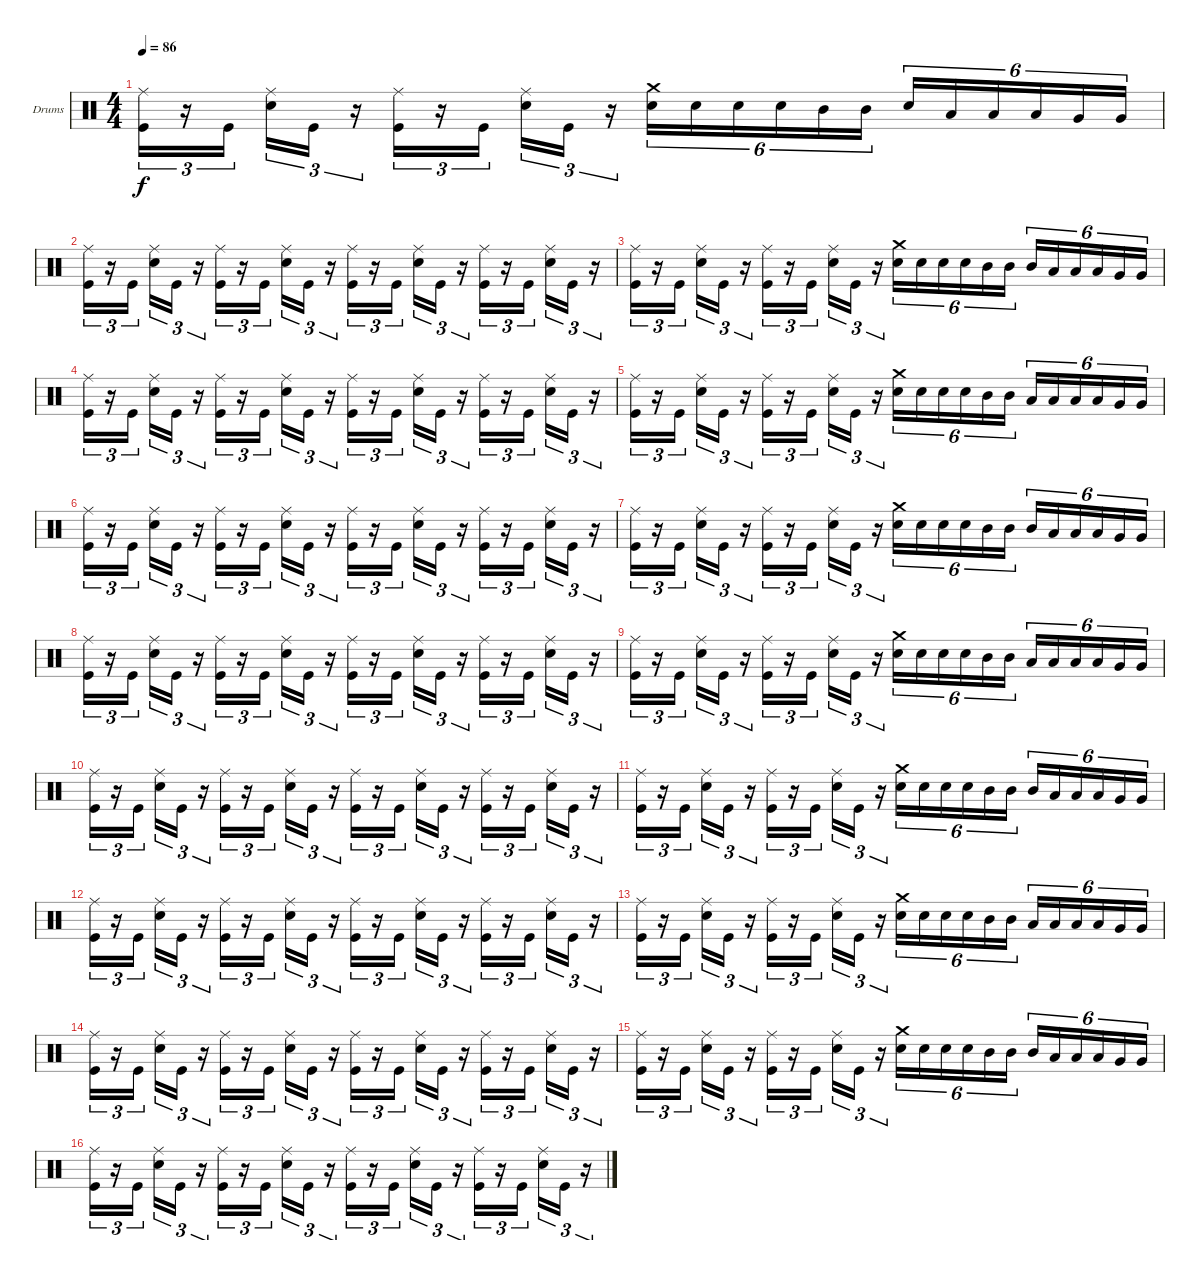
\bracketExtendMode groupsimilarinstruments
\firstSystemTrackNameOrientation horizontal
\otherSystemsTrackNameOrientation horizontal
\track ("Drumkit" "Drums") {instrument percussion}
\staff {score}
\articulation defaults
\ts (4 4)
\tempo 86
\clef neutral
\ks c
("Kick (hit)" "Ride (middle)").16{tu (3 2) dy f} r.16{tu (3 2)} "Kick (hit)".16{tu (3 2)} ("Snare (hit) 2" "Ride (middle)").16{tu (3 2)} "Kick (hit)".16{tu (3 2)} r.16{tu (3 2)} ("Kick (hit)" "Ride (middle)").16{tu (3 2)} r.16{tu (3 2)} "Kick (hit)".16{tu (3 2)} ("Snare (hit) 2" "Ride (middle)").16{tu (3 2)} "Kick (hit)".16{tu (3 2)} r.16{tu (3 2)} ("Snare (hit) 2" "Crash medium (hit)").16{tu (6 4)} "Snare (hit) 2".16{tu (6 4)} "Snare (hit) 2".16{tu (6 4)} "Snare (hit) 2".16{tu (6 4)} "Mid Tom (hit)".16{tu (6 4)} "Mid Tom (hit)".16{tu (6 4)} "Snare (hit) 2".16{tu (6 4)} "Low Tom (hit)".16{tu (6 4)} "Low Tom (hit)".16{tu (6 4)} "Low Tom (hit)".16{tu (6 4)} "Very Low Tom (hit)".16{tu (6 4)} "Very Low Tom (hit)".16{tu (6 4)} |
("Kick (hit)" "Ride (middle)").16{tu (3 2)} r.16{tu (3 2)} "Kick (hit)".16{tu (3 2)} ("Snare (hit) 2" "Ride (middle)").16{tu (3 2)} "Kick (hit)".16{tu (3 2)} r.16{tu (3 2)} ("Kick (hit)" "Ride (middle)").16{tu (3 2)} r.16{tu (3 2)} "Kick (hit)".16{tu (3 2)} ("Snare (hit) 2" "Ride (middle)").16{tu (3 2)} "Kick (hit)".16{tu (3 2)} r.16{tu (3 2)} ("Kick (hit)" "Ride (middle)").16{tu (3 2)} r.16{tu (3 2)} "Kick (hit)".16{tu (3 2)} ("Snare (hit) 2" "Ride (middle)").16{tu (3 2)} "Kick (hit)".16{tu (3 2)} r.16{tu (3 2)} ("Kick (hit)" "Ride (middle)").16{tu (3 2)} r.16{tu (3 2)} "Kick (hit)".16{tu (3 2)} ("Snare (hit) 2" "Ride (middle)").16{tu (3 2)} "Kick (hit)".16{tu (3 2)} r.16{tu (3 2)} |
("Kick (hit)" "Ride (middle)").16{tu (3 2)} r.16{tu (3 2)} "Kick (hit)".16{tu (3 2)} ("Snare (hit) 2" "Ride (middle)").16{tu (3 2)} "Kick (hit)".16{tu (3 2)} r.16{tu (3 2)} ("Kick (hit)" "Ride (middle)").16{tu (3 2)} r.16{tu (3 2)} "Kick (hit)".16{tu (3 2)} ("Snare (hit) 2" "Ride (middle)").16{tu (3 2)} "Kick (hit)".16{tu (3 2)} r.16{tu (3 2)} ("Snare (hit) 2" "Crash medium (hit)").16{tu (6 4)} "Snare (hit) 2".16{tu (6 4)} "Snare (hit) 2".16{tu (6 4)} "Snare (hit) 2".16{tu (6 4)} "Mid Tom (hit)".16{tu (6 4)} "Mid Tom (hit)".16{tu (6 4)} "Mid Tom (hit)".16{tu (6 4)} "Low Tom (hit)".16{tu (6 4)} "Low Tom (hit)".16{tu (6 4)} "Low Tom (hit)".16{tu (6 4)} "Very Low Tom (hit)".16{tu (6 4)} "Very Low Tom (hit)".16{tu (6 4)} |
("Kick (hit)" "Ride (middle)").16{tu (3 2)} r.16{tu (3 2)} "Kick (hit)".16{tu (3 2)} ("Snare (hit) 2" "Ride (middle)").16{tu (3 2)} "Kick (hit)".16{tu (3 2)} r.16{tu (3 2)} ("Kick (hit)" "Ride (middle)").16{tu (3 2)} r.16{tu (3 2)} "Kick (hit)".16{tu (3 2)} ("Snare (hit) 2" "Ride (middle)").16{tu (3 2)} "Kick (hit)".16{tu (3 2)} r.16{tu (3 2)} ("Kick (hit)" "Ride (middle)").16{tu (3 2)} r.16{tu (3 2)} "Kick (hit)".16{tu (3 2)} ("Snare (hit) 2" "Ride (middle)").16{tu (3 2)} "Kick (hit)".16{tu (3 2)} r.16{tu (3 2)} ("Kick (hit)" "Ride (middle)").16{tu (3 2)} r.16{tu (3 2)} "Kick (hit)".16{tu (3 2)} ("Snare (hit) 2" "Ride (middle)").16{tu (3 2)} "Kick (hit)".16{tu (3 2)} r.16{tu (3 2)} |
("Kick (hit)" "Ride (middle)").16{tu (3 2)} r.16{tu (3 2)} "Kick (hit)".16{tu (3 2)} ("Snare (hit) 2" "Ride (middle)").16{tu (3 2)} "Kick (hit)".16{tu (3 2)} r.16{tu (3 2)} ("Kick (hit)" "Ride (middle)").16{tu (3 2)} r.16{tu (3 2)} "Kick (hit)".16{tu (3 2)} ("Snare (hit) 2" "Ride (middle)").16{tu (3 2)} "Kick (hit)".16{tu (3 2)} r.16{tu (3 2)} ("Snare (hit) 2" "Crash medium (hit)").16{tu (6 4)} "Snare (hit) 2".16{tu (6 4)} "Snare (hit) 2".16{tu (6 4)} "Snare (hit) 2".16{tu (6 4)} "Mid Tom (hit)".16{tu (6 4)} "Mid Tom (hit)".16{tu (6 4)} "Low Tom (hit)".16{tu (6 4)} "Low Tom (hit)".16{tu (6 4)} "Low Tom (hit)".16{tu (6 4)} "Low Tom (hit)".16{tu (6 4)} "Very Low Tom (hit)".16{tu (6 4)} "Very Low Tom (hit)".16{tu (6 4)} |
("Kick (hit)" "Ride (middle)").16{tu (3 2)} r.16{tu (3 2)} "Kick (hit)".16{tu (3 2)} ("Snare (hit) 2" "Ride (middle)").16{tu (3 2)} "Kick (hit)".16{tu (3 2)} r.16{tu (3 2)} ("Kick (hit)" "Ride (middle)").16{tu (3 2)} r.16{tu (3 2)} "Kick (hit)".16{tu (3 2)} ("Snare (hit) 2" "Ride (middle)").16{tu (3 2)} "Kick (hit)".16{tu (3 2)} r.16{tu (3 2)} ("Kick (hit)" "Ride (middle)").16{tu (3 2)} r.16{tu (3 2)} "Kick (hit)".16{tu (3 2)} ("Snare (hit) 2" "Ride (middle)").16{tu (3 2)} "Kick (hit)".16{tu (3 2)} r.16{tu (3 2)} ("Kick (hit)" "Ride (middle)").16{tu (3 2)} r.16{tu (3 2)} "Kick (hit)".16{tu (3 2)} ("Snare (hit) 2" "Ride (middle)").16{tu (3 2)} "Kick (hit)".16{tu (3 2)} r.16{tu (3 2)} |
("Kick (hit)" "Ride (middle)").16{tu (3 2)} r.16{tu (3 2)} "Kick (hit)".16{tu (3 2)} ("Snare (hit) 2" "Ride (middle)").16{tu (3 2)} "Kick (hit)".16{tu (3 2)} r.16{tu (3 2)} ("Kick (hit)" "Ride (middle)").16{tu (3 2)} r.16{tu (3 2)} "Kick (hit)".16{tu (3 2)} ("Snare (hit) 2" "Ride (middle)").16{tu (3 2)} "Kick (hit)".16{tu (3 2)} r.16{tu (3 2)} ("Snare (hit) 2" "Crash medium (hit)").16{tu (6 4)} "Snare (hit) 2".16{tu (6 4)} "Snare (hit) 2".16{tu (6 4)} "Snare (hit) 2".16{tu (6 4)} "Mid Tom (hit)".16{tu (6 4)} "Mid Tom (hit)".16{tu (6 4)} "Mid Tom (hit)".16{tu (6 4)} "Low Tom (hit)".16{tu (6 4)} "Low Tom (hit)".16{tu (6 4)} "Low Tom (hit)".16{tu (6 4)} "Very Low Tom (hit)".16{tu (6 4)} "Very Low Tom (hit)".16{tu (6 4)} |
("Kick (hit)" "Ride (middle)").16{tu (3 2)} r.16{tu (3 2)} "Kick (hit)".16{tu (3 2)} ("Snare (hit) 2" "Ride (middle)").16{tu (3 2)} "Kick (hit)".16{tu (3 2)} r.16{tu (3 2)} ("Kick (hit)" "Ride (middle)").16{tu (3 2)} r.16{tu (3 2)} "Kick (hit)".16{tu (3 2)} ("Snare (hit) 2" "Ride (middle)").16{tu (3 2)} "Kick (hit)".16{tu (3 2)} r.16{tu (3 2)} ("Kick (hit)" "Ride (middle)").16{tu (3 2)} r.16{tu (3 2)} "Kick (hit)".16{tu (3 2)} ("Snare (hit) 2" "Ride (middle)").16{tu (3 2)} "Kick (hit)".16{tu (3 2)} r.16{tu (3 2)} ("Kick (hit)" "Ride (middle)").16{tu (3 2)} r.16{tu (3 2)} "Kick (hit)".16{tu (3 2)} ("Snare (hit) 2" "Ride (middle)").16{tu (3 2)} "Kick (hit)".16{tu (3 2)} r.16{tu (3 2)} |
("Kick (hit)" "Ride (middle)").16{tu (3 2)} r.16{tu (3 2)} "Kick (hit)".16{tu (3 2)} ("Snare (hit) 2" "Ride (middle)").16{tu (3 2)} "Kick (hit)".16{tu (3 2)} r.16{tu (3 2)} ("Kick (hit)" "Ride (middle)").16{tu (3 2)} r.16{tu (3 2)} "Kick (hit)".16{tu (3 2)} ("Snare (hit) 2" "Ride (middle)").16{tu (3 2)} "Kick (hit)".16{tu (3 2)} r.16{tu (3 2)} ("Snare (hit) 2" "Crash medium (hit)").16{tu (6 4)} "Snare (hit) 2".16{tu (6 4)} "Snare (hit) 2".16{tu (6 4)} "Snare (hit) 2".16{tu (6 4)} "Mid Tom (hit)".16{tu (6 4)} "Mid Tom (hit)".16{tu (6 4)} "Low Tom (hit)".16{tu (6 4)} "Low Tom (hit)".16{tu (6 4)} "Low Tom (hit)".16{tu (6 4)} "Low Tom (hit)".16{tu (6 4)} "Very Low Tom (hit)".16{tu (6 4)} "Very Low Tom (hit)".16{tu (6 4)} |
("Kick (hit)" "Ride (middle)").16{tu (3 2)} r.16{tu (3 2)} "Kick (hit)".16{tu (3 2)} ("Snare (hit) 2" "Ride (middle)").16{tu (3 2)} "Kick (hit)".16{tu (3 2)} r.16{tu (3 2)} ("Kick (hit)" "Ride (middle)").16{tu (3 2)} r.16{tu (3 2)} "Kick (hit)".16{tu (3 2)} ("Snare (hit) 2" "Ride (middle)").16{tu (3 2)} "Kick (hit)".16{tu (3 2)} r.16{tu (3 2)} ("Kick (hit)" "Ride (middle)").16{tu (3 2)} r.16{tu (3 2)} "Kick (hit)".16{tu (3 2)} ("Snare (hit) 2" "Ride (middle)").16{tu (3 2)} "Kick (hit)".16{tu (3 2)} r.16{tu (3 2)} ("Kick (hit)" "Ride (middle)").16{tu (3 2)} r.16{tu (3 2)} "Kick (hit)".16{tu (3 2)} ("Snare (hit) 2" "Ride (middle)").16{tu (3 2)} "Kick (hit)".16{tu (3 2)} r.16{tu (3 2)} |
("Kick (hit)" "Ride (middle)").16{tu (3 2)} r.16{tu (3 2)} "Kick (hit)".16{tu (3 2)} ("Snare (hit) 2" "Ride (middle)").16{tu (3 2)} "Kick (hit)".16{tu (3 2)} r.16{tu (3 2)} ("Kick (hit)" "Ride (middle)").16{tu (3 2)} r.16{tu (3 2)} "Kick (hit)".16{tu (3 2)} ("Snare (hit) 2" "Ride (middle)").16{tu (3 2)} "Kick (hit)".16{tu (3 2)} r.16{tu (3 2)} ("Snare (hit) 2" "Crash medium (hit)").16{tu (6 4)} "Snare (hit) 2".16{tu (6 4)} "Snare (hit) 2".16{tu (6 4)} "Snare (hit) 2".16{tu (6 4)} "Mid Tom (hit)".16{tu (6 4)} "Mid Tom (hit)".16{tu (6 4)} "Mid Tom (hit)".16{tu (6 4)} "Low Tom (hit)".16{tu (6 4)} "Low Tom (hit)".16{tu (6 4)} "Low Tom (hit)".16{tu (6 4)} "Very Low Tom (hit)".16{tu (6 4)} "Very Low Tom (hit)".16{tu (6 4)} |
("Kick (hit)" "Ride (middle)").16{tu (3 2)} r.16{tu (3 2)} "Kick (hit)".16{tu (3 2)} ("Snare (hit) 2" "Ride (middle)").16{tu (3 2)} "Kick (hit)".16{tu (3 2)} r.16{tu (3 2)} ("Kick (hit)" "Ride (middle)").16{tu (3 2)} r.16{tu (3 2)} "Kick (hit)".16{tu (3 2)} ("Snare (hit) 2" "Ride (middle)").16{tu (3 2)} "Kick (hit)".16{tu (3 2)} r.16{tu (3 2)} ("Kick (hit)" "Ride (middle)").16{tu (3 2)} r.16{tu (3 2)} "Kick (hit)".16{tu (3 2)} ("Snare (hit) 2" "Ride (middle)").16{tu (3 2)} "Kick (hit)".16{tu (3 2)} r.16{tu (3 2)} ("Kick (hit)" "Ride (middle)").16{tu (3 2)} r.16{tu (3 2)} "Kick (hit)".16{tu (3 2)} ("Snare (hit) 2" "Ride (middle)").16{tu (3 2)} "Kick (hit)".16{tu (3 2)} r.16{tu (3 2)} |
("Kick (hit)" "Ride (middle)").16{tu (3 2)} r.16{tu (3 2)} "Kick (hit)".16{tu (3 2)} ("Snare (hit) 2" "Ride (middle)").16{tu (3 2)} "Kick (hit)".16{tu (3 2)} r.16{tu (3 2)} ("Kick (hit)" "Ride (middle)").16{tu (3 2)} r.16{tu (3 2)} "Kick (hit)".16{tu (3 2)} ("Snare (hit) 2" "Ride (middle)").16{tu (3 2)} "Kick (hit)".16{tu (3 2)} r.16{tu (3 2)} ("Snare (hit) 2" "Crash medium (hit)").16{tu (6 4)} "Snare (hit) 2".16{tu (6 4)} "Snare (hit) 2".16{tu (6 4)} "Snare (hit) 2".16{tu (6 4)} "Mid Tom (hit)".16{tu (6 4)} "Mid Tom (hit)".16{tu (6 4)} "Low Tom (hit)".16{tu (6 4)} "Low Tom (hit)".16{tu (6 4)} "Low Tom (hit)".16{tu (6 4)} "Low Tom (hit)".16{tu (6 4)} "Very Low Tom (hit)".16{tu (6 4)} "Very Low Tom (hit)".16{tu (6 4)} |
("Kick (hit)" "Ride (middle)").16{tu (3 2)} r.16{tu (3 2)} "Kick (hit)".16{tu (3 2)} ("Snare (hit) 2" "Ride (middle)").16{tu (3 2)} "Kick (hit)".16{tu (3 2)} r.16{tu (3 2)} ("Kick (hit)" "Ride (middle)").16{tu (3 2)} r.16{tu (3 2)} "Kick (hit)".16{tu (3 2)} ("Snare (hit) 2" "Ride (middle)").16{tu (3 2)} "Kick (hit)".16{tu (3 2)} r.16{tu (3 2)} ("Kick (hit)" "Ride (middle)").16{tu (3 2)} r.16{tu (3 2)} "Kick (hit)".16{tu (3 2)} ("Snare (hit) 2" "Ride (middle)").16{tu (3 2)} "Kick (hit)".16{tu (3 2)} r.16{tu (3 2)} ("Kick (hit)" "Ride (middle)").16{tu (3 2)} r.16{tu (3 2)} "Kick (hit)".16{tu (3 2)} ("Snare (hit) 2" "Ride (middle)").16{tu (3 2)} "Kick (hit)".16{tu (3 2)} r.16{tu (3 2)} |
("Kick (hit)" "Ride (middle)").16{tu (3 2)} r.16{tu (3 2)} "Kick (hit)".16{tu (3 2)} ("Snare (hit) 2" "Ride (middle)").16{tu (3 2)} "Kick (hit)".16{tu (3 2)} r.16{tu (3 2)} ("Kick (hit)" "Ride (middle)").16{tu (3 2)} r.16{tu (3 2)} "Kick (hit)".16{tu (3 2)} ("Snare (hit) 2" "Ride (middle)").16{tu (3 2)} "Kick (hit)".16{tu (3 2)} r.16{tu (3 2)} ("Snare (hit) 2" "Crash medium (hit)").16{tu (6 4)} "Snare (hit) 2".16{tu (6 4)} "Snare (hit) 2".16{tu (6 4)} "Snare (hit) 2".16{tu (6 4)} "Mid Tom (hit)".16{tu (6 4)} "Mid Tom (hit)".16{tu (6 4)} "Mid Tom (hit)".16{tu (6 4)} "Low Tom (hit)".16{tu (6 4)} "Low Tom (hit)".16{tu (6 4)} "Low Tom (hit)".16{tu (6 4)} "Very Low Tom (hit)".16{tu (6 4)} "Very Low Tom (hit)".16{tu (6 4)} |
("Kick (hit)" "Ride (middle)").16{tu (3 2)} r.16{tu (3 2)} "Kick (hit)".16{tu (3 2)} ("Snare (hit) 2" "Ride (middle)").16{tu (3 2)} "Kick (hit)".16{tu (3 2)} r.16{tu (3 2)} ("Kick (hit)" "Ride (middle)").16{tu (3 2)} r.16{tu (3 2)} "Kick (hit)".16{tu (3 2)} ("Snare (hit) 2" "Ride (middle)").16{tu (3 2)} "Kick (hit)".16{tu (3 2)} r.16{tu (3 2)} ("Kick (hit)" "Ride (middle)").16{tu (3 2)} r.16{tu (3 2)} "Kick (hit)".16{tu (3 2)} ("Snare (hit) 2" "Ride (middle)").16{tu (3 2)} "Kick (hit)".16{tu (3 2)} r.16{tu (3 2)} ("Kick (hit)" "Ride (middle)").16{tu (3 2)} r.16{tu (3 2)} "Kick (hit)".16{tu (3 2)} ("Snare (hit) 2" "Ride (middle)").16{tu (3 2)} "Kick (hit)".16{tu (3 2)} r.16{tu (3 2)}
